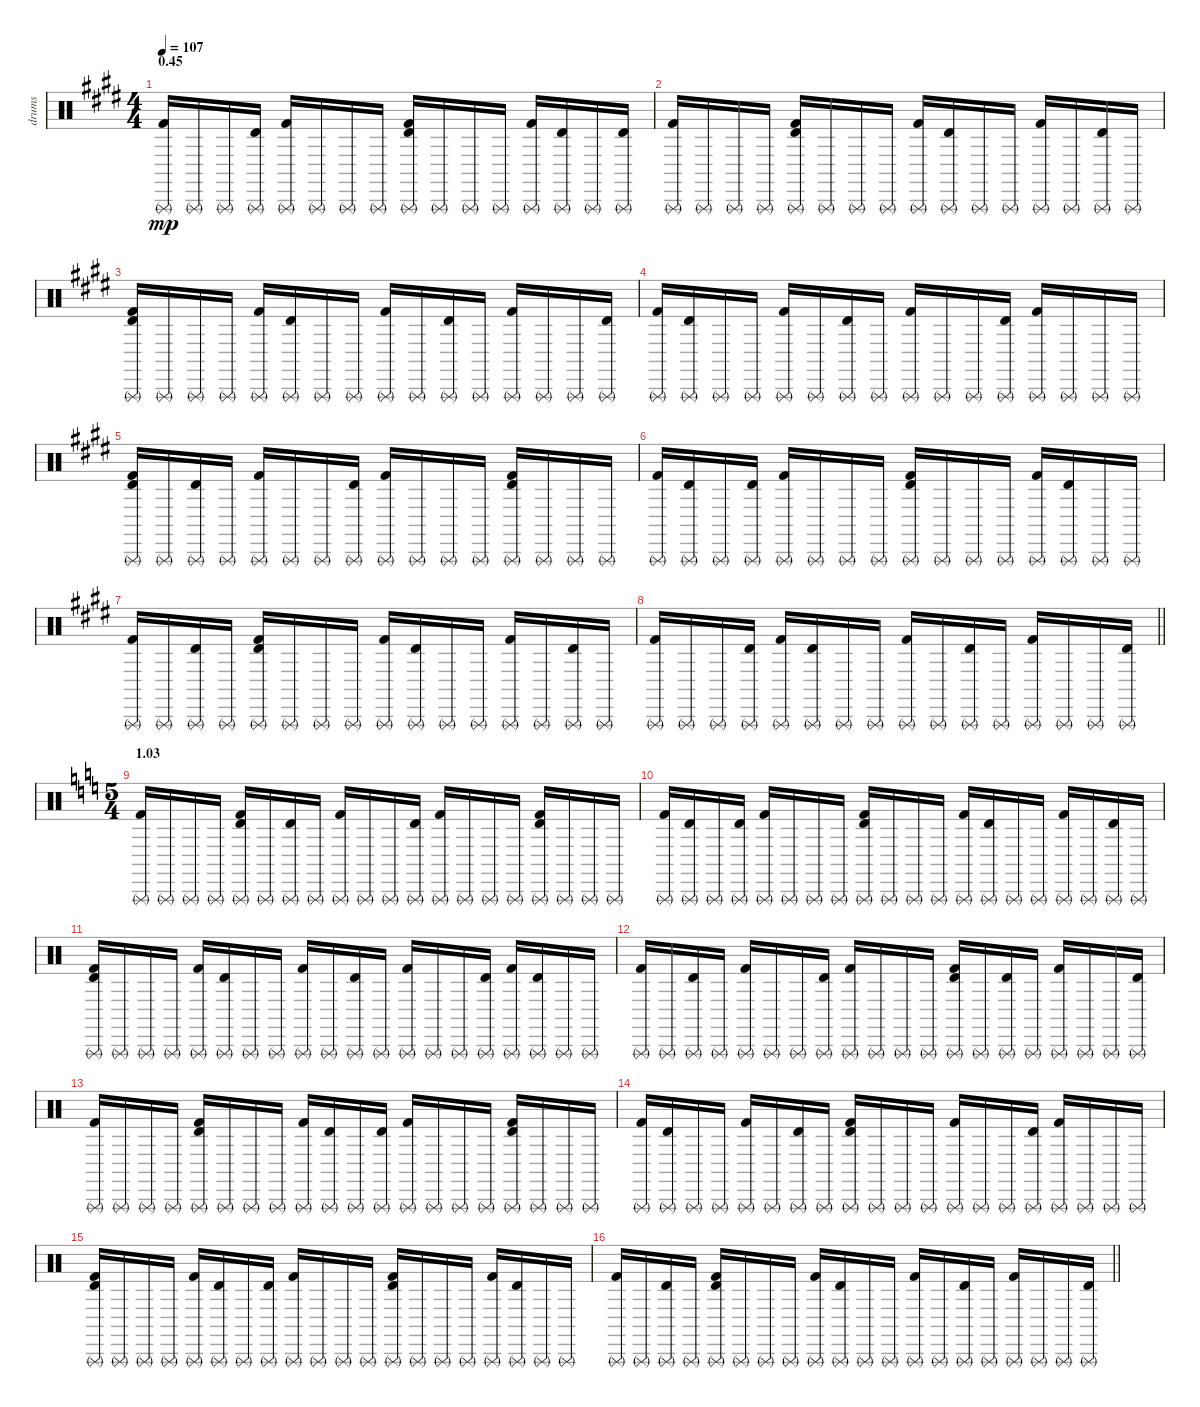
\track ("drums" "drums") {instrument percussion}
\staff {score}
\articulation defaults
\ts (4 4)
\section ("" "0.45")
\tempo 107
\clef neutral
\ks c#minor
("Triangle (rnute)" "Kick (hit) 2").16{dy mp} "Triangle (rnute)".16 "Triangle (rnute)".16 ("Triangle (rnute)" "Timbale high (hit)").16 ("Triangle (rnute)" "Kick (hit) 2").16 "Triangle (rnute)".16 "Triangle (rnute)".16 "Triangle (rnute)".16 ("Triangle (rnute)" "Timbale high (hit)" "Kick (hit) 2").16 "Triangle (rnute)".16 "Triangle (rnute)".16 "Triangle (rnute)".16 ("Triangle (rnute)" "Kick (hit) 2").16 ("Triangle (rnute)" "Timbale high (hit)").16 "Triangle (rnute)".16 ("Triangle (rnute)" "Timbale high (hit)").16 |
("Triangle (rnute)" "Kick (hit) 2").16 "Triangle (rnute)".16 "Triangle (rnute)".16 "Triangle (rnute)".16 ("Triangle (rnute)" "Timbale high (hit)" "Kick (hit) 2").16 "Triangle (rnute)".16 "Triangle (rnute)".16 "Triangle (rnute)".16 ("Triangle (rnute)" "Kick (hit) 2").16 ("Triangle (rnute)" "Timbale high (hit)").16 "Triangle (rnute)".16 "Triangle (rnute)".16 ("Triangle (rnute)" "Kick (hit) 2").16 "Triangle (rnute)".16 ("Triangle (rnute)" "Timbale high (hit)").16 "Triangle (rnute)".16 |
("Triangle (rnute)" "Timbale high (hit)" "Kick (hit) 2").16 "Triangle (rnute)".16 "Triangle (rnute)".16 "Triangle (rnute)".16 ("Triangle (rnute)" "Kick (hit) 2").16 ("Triangle (rnute)" "Timbale high (hit)").16 "Triangle (rnute)".16 "Triangle (rnute)".16 ("Triangle (rnute)" "Kick (hit) 2").16 "Triangle (rnute)".16 ("Triangle (rnute)" "Timbale high (hit)").16 "Triangle (rnute)".16 ("Triangle (rnute)" "Kick (hit) 2").16 "Triangle (rnute)".16 "Triangle (rnute)".16 ("Triangle (rnute)" "Timbale high (hit)").16 |
("Triangle (rnute)" "Kick (hit) 2").16 ("Triangle (rnute)" "Timbale high (hit)").16 "Triangle (rnute)".16 "Triangle (rnute)".16 ("Triangle (rnute)" "Kick (hit) 2").16 "Triangle (rnute)".16 ("Triangle (rnute)" "Timbale high (hit)").16 "Triangle (rnute)".16 ("Triangle (rnute)" "Kick (hit) 2").16 "Triangle (rnute)".16 "Triangle (rnute)".16 ("Triangle (rnute)" "Timbale high (hit)").16 ("Triangle (rnute)" "Kick (hit) 2").16 "Triangle (rnute)".16 "Triangle (rnute)".16 "Triangle (rnute)".16 |
("Triangle (rnute)" "Timbale high (hit)" "Kick (hit) 2").16 "Triangle (rnute)".16 ("Triangle (rnute)" "Timbale high (hit)").16 "Triangle (rnute)".16 ("Triangle (rnute)" "Kick (hit) 2").16 "Triangle (rnute)".16 "Triangle (rnute)".16 ("Triangle (rnute)" "Timbale high (hit)").16 ("Triangle (rnute)" "Kick (hit) 2").16 "Triangle (rnute)".16 "Triangle (rnute)".16 "Triangle (rnute)".16 ("Triangle (rnute)" "Timbale high (hit)" "Kick (hit) 2").16 "Triangle (rnute)".16 "Triangle (rnute)".16 "Triangle (rnute)".16 |
("Triangle (rnute)" "Kick (hit) 2").16 ("Triangle (rnute)" "Timbale high (hit)").16 "Triangle (rnute)".16 ("Triangle (rnute)" "Timbale high (hit)").16 ("Triangle (rnute)" "Kick (hit) 2").16 "Triangle (rnute)".16 "Triangle (rnute)".16 "Triangle (rnute)".16 ("Triangle (rnute)" "Timbale high (hit)" "Kick (hit) 2").16 "Triangle (rnute)".16 "Triangle (rnute)".16 "Triangle (rnute)".16 ("Triangle (rnute)" "Kick (hit) 2").16 ("Triangle (rnute)" "Timbale high (hit)").16 "Triangle (rnute)".16 "Triangle (rnute)".16 |
("Triangle (rnute)" "Kick (hit) 2").16 "Triangle (rnute)".16 ("Triangle (rnute)" "Timbale high (hit)").16 "Triangle (rnute)".16 ("Triangle (rnute)" "Timbale high (hit)" "Kick (hit) 2").16 "Triangle (rnute)".16 "Triangle (rnute)".16 "Triangle (rnute)".16 ("Triangle (rnute)" "Kick (hit) 2").16 ("Triangle (rnute)" "Timbale high (hit)").16 "Triangle (rnute)".16 "Triangle (rnute)".16 ("Triangle (rnute)" "Kick (hit) 2").16 "Triangle (rnute)".16 ("Triangle (rnute)" "Timbale high (hit)").16 "Triangle (rnute)".16 |
\barLineRight lightlight
("Triangle (rnute)" "Kick (hit) 2").16 "Triangle (rnute)".16 "Triangle (rnute)".16 ("Triangle (rnute)" "Timbale high (hit)").16 ("Triangle (rnute)" "Kick (hit) 2").16 ("Triangle (rnute)" "Timbale high (hit)").16 "Triangle (rnute)".16 "Triangle (rnute)".16 ("Triangle (rnute)" "Kick (hit) 2").16 "Triangle (rnute)".16 ("Triangle (rnute)" "Timbale high (hit)").16 "Triangle (rnute)".16 ("Triangle (rnute)" "Kick (hit) 2").16 "Triangle (rnute)".16 "Triangle (rnute)".16 ("Triangle (rnute)" "Timbale high (hit)").16 |
\ts (5 4)
\section ("" "1.03")
\ks c
("Triangle (rnute)" "Kick (hit) 2").16 "Triangle (rnute)".16 "Triangle (rnute)".16 "Triangle (rnute)".16 ("Triangle (rnute)" "Timbale high (hit)" "Kick (hit) 2").16 "Triangle (rnute)".16 ("Triangle (rnute)" "Timbale high (hit)").16 "Triangle (rnute)".16 ("Triangle (rnute)" "Kick (hit) 2").16 "Triangle (rnute)".16 "Triangle (rnute)".16 ("Triangle (rnute)" "Timbale high (hit)").16 ("Triangle (rnute)" "Kick (hit) 2").16 "Triangle (rnute)".16 "Triangle (rnute)".16 "Triangle (rnute)".16 ("Triangle (rnute)" "Timbale high (hit)" "Kick (hit) 2").16 "Triangle (rnute)".16 "Triangle (rnute)".16 "Triangle (rnute)".16 |
("Triangle (rnute)" "Kick (hit) 2").16 ("Triangle (rnute)" "Timbale high (hit)").16 "Triangle (rnute)".16 ("Triangle (rnute)" "Timbale high (hit)").16 ("Triangle (rnute)" "Kick (hit) 2").16 "Triangle (rnute)".16 "Triangle (rnute)".16 "Triangle (rnute)".16 ("Triangle (rnute)" "Timbale high (hit)" "Kick (hit) 2").16 "Triangle (rnute)".16 "Triangle (rnute)".16 "Triangle (rnute)".16 ("Triangle (rnute)" "Kick (hit) 2").16 ("Triangle (rnute)" "Timbale high (hit)").16 "Triangle (rnute)".16 "Triangle (rnute)".16 ("Triangle (rnute)" "Kick (hit) 2").16 "Triangle (rnute)".16 ("Triangle (rnute)" "Timbale high (hit)").16 "Triangle (rnute)".16 |
("Triangle (rnute)" "Timbale high (hit)" "Kick (hit) 2").16 "Triangle (rnute)".16 "Triangle (rnute)".16 "Triangle (rnute)".16 ("Triangle (rnute)" "Kick (hit) 2").16 ("Triangle (rnute)" "Timbale high (hit)").16 "Triangle (rnute)".16 "Triangle (rnute)".16 ("Triangle (rnute)" "Kick (hit) 2").16 "Triangle (rnute)".16 ("Triangle (rnute)" "Timbale high (hit)").16 "Triangle (rnute)".16 ("Triangle (rnute)" "Kick (hit) 2").16 "Triangle (rnute)".16 "Triangle (rnute)".16 ("Triangle (rnute)" "Timbale high (hit)").16 ("Triangle (rnute)" "Kick (hit) 2").16 ("Triangle (rnute)" "Timbale high (hit)").16 "Triangle (rnute)".16 "Triangle (rnute)".16 |
("Triangle (rnute)" "Kick (hit) 2").16 "Triangle (rnute)".16 ("Triangle (rnute)" "Timbale high (hit)").16 "Triangle (rnute)".16 ("Triangle (rnute)" "Kick (hit) 2").16 "Triangle (rnute)".16 "Triangle (rnute)".16 ("Triangle (rnute)" "Timbale high (hit)").16 ("Triangle (rnute)" "Kick (hit) 2").16 "Triangle (rnute)".16 "Triangle (rnute)".16 "Triangle (rnute)".16 ("Triangle (rnute)" "Timbale high (hit)" "Kick (hit) 2").16 "Triangle (rnute)".16 ("Triangle (rnute)" "Timbale high (hit)").16 "Triangle (rnute)".16 ("Triangle (rnute)" "Kick (hit) 2").16 "Triangle (rnute)".16 "Triangle (rnute)".16 ("Triangle (rnute)" "Timbale high (hit)").16 |
("Triangle (rnute)" "Kick (hit) 2").16 "Triangle (rnute)".16 "Triangle (rnute)".16 "Triangle (rnute)".16 ("Triangle (rnute)" "Timbale high (hit)" "Kick (hit) 2").16 "Triangle (rnute)".16 "Triangle (rnute)".16 "Triangle (rnute)".16 ("Triangle (rnute)" "Kick (hit) 2").16 ("Triangle (rnute)" "Timbale high (hit)").16 "Triangle (rnute)".16 ("Triangle (rnute)" "Timbale high (hit)").16 ("Triangle (rnute)" "Kick (hit) 2").16 "Triangle (rnute)".16 "Triangle (rnute)".16 "Triangle (rnute)".16 ("Triangle (rnute)" "Timbale high (hit)" "Kick (hit) 2").16 "Triangle (rnute)".16 "Triangle (rnute)".16 "Triangle (rnute)".16 |
("Triangle (rnute)" "Kick (hit) 2").16 ("Triangle (rnute)" "Timbale high (hit)").16 "Triangle (rnute)".16 "Triangle (rnute)".16 ("Triangle (rnute)" "Kick (hit) 2").16 "Triangle (rnute)".16 ("Triangle (rnute)" "Timbale high (hit)").16 "Triangle (rnute)".16 ("Triangle (rnute)" "Timbale high (hit)" "Kick (hit) 2").16 "Triangle (rnute)".16 "Triangle (rnute)".16 "Triangle (rnute)".16 ("Triangle (rnute)" "Kick (hit) 2").16 "Triangle (rnute)".16 "Triangle (rnute)".16 ("Triangle (rnute)" "Timbale high (hit)").16 ("Triangle (rnute)" "Kick (hit) 2").16 "Triangle (rnute)".16 "Triangle (rnute)".16 "Triangle (rnute)".16 |
("Triangle (rnute)" "Timbale high (hit)" "Kick (hit) 2").16 "Triangle (rnute)".16 "Triangle (rnute)".16 "Triangle (rnute)".16 ("Triangle (rnute)" "Kick (hit) 2").16 ("Triangle (rnute)" "Timbale high (hit)").16 "Triangle (rnute)".16 ("Triangle (rnute)" "Timbale high (hit)").16 ("Triangle (rnute)" "Kick (hit) 2").16 "Triangle (rnute)".16 "Triangle (rnute)".16 "Triangle (rnute)".16 ("Triangle (rnute)" "Timbale high (hit)" "Kick (hit) 2").16 "Triangle (rnute)".16 "Triangle (rnute)".16 "Triangle (rnute)".16 ("Triangle (rnute)" "Kick (hit) 2").16 ("Triangle (rnute)" "Timbale high (hit)").16 "Triangle (rnute)".16 "Triangle (rnute)".16 |
\barLineRight lightlight
("Triangle (rnute)" "Kick (hit) 2").16 "Triangle (rnute)".16 ("Triangle (rnute)" "Timbale high (hit)").16 "Triangle (rnute)".16 ("Triangle (rnute)" "Timbale high (hit)" "Kick (hit) 2").16 "Triangle (rnute)".16 "Triangle (rnute)".16 "Triangle (rnute)".16 ("Triangle (rnute)" "Kick (hit) 2").16 ("Triangle (rnute)" "Timbale high (hit)").16 "Triangle (rnute)".16 "Triangle (rnute)".16 ("Triangle (rnute)" "Kick (hit) 2").16 "Triangle (rnute)".16 ("Triangle (rnute)" "Timbale high (hit)").16 "Triangle (rnute)".16 ("Triangle (rnute)" "Kick (hit) 2").16 "Triangle (rnute)".16 "Triangle (rnute)".16 ("Triangle (rnute)" "Timbale high (hit)").16
